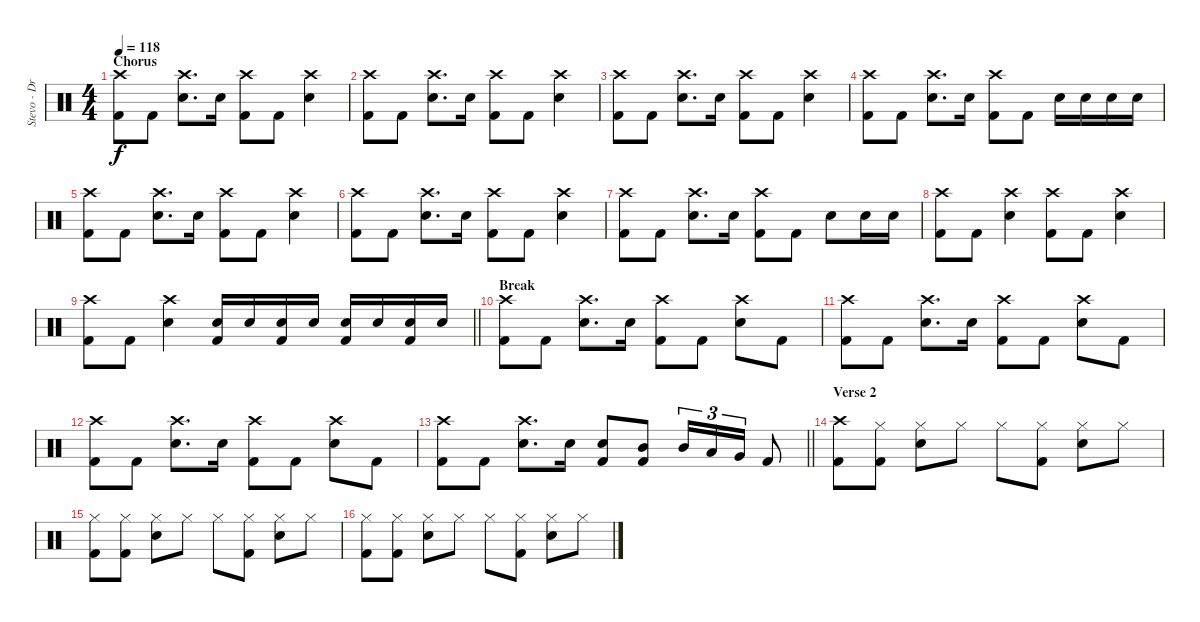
\track ("Stevo - Drums" "Stevo - Dr") {instrument percussion}
\staff {score}
\articulation defaults
\ts (4 4)
\section ("" "Chorus")
\tempo 118
\clef neutral
\ks c
("Crash high (hit)" "Kick (hit) 2").8{dy f} "Kick (hit) 2".8 ("Crash high (hit)" "Snare (hit) 2").8{d} "Snare (hit) 2".16 ("Crash high (hit)" "Kick (hit) 2").8 "Kick (hit) 2".8 ("Crash high (hit)" "Snare (hit) 2").4 |
("Crash high (hit)" "Kick (hit) 2").8 "Kick (hit) 2".8 ("Crash high (hit)" "Snare (hit) 2").8{d} "Snare (hit) 2".16 ("Crash high (hit)" "Kick (hit) 2").8 "Kick (hit) 2".8 ("Crash high (hit)" "Snare (hit) 2").4 |
("Crash high (hit)" "Kick (hit) 2").8 "Kick (hit) 2".8 ("Crash high (hit)" "Snare (hit) 2").8{d} "Snare (hit) 2".16 ("Crash high (hit)" "Kick (hit) 2").8 "Kick (hit) 2".8 ("Crash high (hit)" "Snare (hit) 2").4 |
("Crash high (hit)" "Kick (hit) 2").8 "Kick (hit) 2".8 ("Crash high (hit)" "Snare (hit) 2").8{d} "Snare (hit) 2".16 ("Crash high (hit)" "Kick (hit) 2").8 "Kick (hit) 2".8 "Snare (hit) 2".16 "Snare (hit) 2".16 "Snare (hit) 2".16 "Snare (hit) 2".16 |
("Crash high (hit)" "Kick (hit) 2").8 "Kick (hit) 2".8 ("Crash high (hit)" "Snare (hit) 2").8{d} "Snare (hit) 2".16 ("Crash high (hit)" "Kick (hit) 2").8 "Kick (hit) 2".8 ("Crash high (hit)" "Snare (hit) 2").4 |
("Crash high (hit)" "Kick (hit) 2").8 "Kick (hit) 2".8 ("Crash high (hit)" "Snare (hit) 2").8{d} "Snare (hit) 2".16 ("Crash high (hit)" "Kick (hit) 2").8 "Kick (hit) 2".8 ("Crash high (hit)" "Snare (hit) 2").4 |
("Crash high (hit)" "Kick (hit) 2").8 "Kick (hit) 2".8 ("Crash high (hit)" "Snare (hit) 2").8{d} "Snare (hit) 2".16 ("Crash high (hit)" "Kick (hit) 2").8 "Kick (hit) 2".8 "Snare (hit) 2".8 "Snare (hit) 2".16 "Snare (hit) 2".16 |
("Crash high (hit)" "Kick (hit) 2").8 "Kick (hit) 2".8 ("Crash high (hit)" "Snare (hit) 2").4 ("Crash high (hit)" "Kick (hit) 2").8 "Kick (hit) 2".8 ("Crash high (hit)" "Snare (hit) 2").4 |
\barLineRight lightlight
("Crash high (hit)" "Kick (hit) 2").8 "Kick (hit) 2".8 ("Crash high (hit)" "Snare (hit) 2").4 ("Snare (hit) 2" "Kick (hit) 2").16 "Snare (hit) 2".16 ("Snare (hit) 2" "Kick (hit) 2").16 "Snare (hit) 2".16 ("Snare (hit) 2" "Kick (hit) 2").16 "Snare (hit) 2".16 ("Snare (hit) 2" "Kick (hit) 2").16 "Snare (hit) 2".16 |
\section ("" "Break")
("Crash high (hit)" "Kick (hit) 2").8 "Kick (hit) 2".8 ("Crash high (hit)" "Snare (hit) 2").8{d} "Snare (hit) 2".16 ("Crash high (hit)" "Kick (hit) 2").8 "Kick (hit) 2".8 ("Crash high (hit)" "Snare (hit) 2").8 "Kick (hit) 2".8 |
("Crash high (hit)" "Kick (hit) 2").8 "Kick (hit) 2".8 ("Crash high (hit)" "Snare (hit) 2").8{d} "Snare (hit) 2".16 ("Crash high (hit)" "Kick (hit) 2").8 "Kick (hit) 2".8 ("Crash high (hit)" "Snare (hit) 2").8 "Kick (hit) 2".8 |
("Crash high (hit)" "Kick (hit) 2").8 "Kick (hit) 2".8 ("Crash high (hit)" "Snare (hit) 2").8{d} "Snare (hit) 2".16 ("Crash high (hit)" "Kick (hit) 2").8 "Kick (hit) 2".8 ("Crash high (hit)" "Snare (hit) 2").8 "Kick (hit) 2".8 |
\barLineRight lightlight
("Crash high (hit)" "Kick (hit) 2").8 "Kick (hit) 2".8 ("Crash high (hit)" "Snare (hit) 2").8{d} "Snare (hit) 2".16 ("Snare (hit) 2" "Kick (hit) 2").8 ("Mid Tom (hit)" "Kick (hit) 2").8 "Mid Tom (hit)".16{tu (3 2)} "Low Tom (hit)".16{tu (3 2)} "Very Low Tom (hit)".16{tu (3 2)} "Kick (hit) 2".8 |
\section ("" "Verse 2")
("Crash high (hit)" "Kick (hit) 2").8 ("Hi-Hat (closed)" "Kick (hit) 2").8 ("Hi-Hat (closed)" "Snare (hit) 2").8 "Hi-Hat (closed)".8 "Hi-Hat (closed)".8 ("Hi-Hat (closed)" "Kick (hit) 2").8 ("Hi-Hat (closed)" "Snare (hit) 2").8 "Hi-Hat (closed)".8 |
("Hi-Hat (closed)" "Kick (hit) 2").8 ("Hi-Hat (closed)" "Kick (hit) 2").8 ("Hi-Hat (closed)" "Snare (hit) 2").8 "Hi-Hat (closed)".8 "Hi-Hat (closed)".8 ("Hi-Hat (closed)" "Kick (hit) 2").8 ("Hi-Hat (closed)" "Snare (hit) 2").8 "Hi-Hat (closed)".8 |
("Hi-Hat (closed)" "Kick (hit) 2").8 ("Hi-Hat (closed)" "Kick (hit) 2").8 ("Hi-Hat (closed)" "Snare (hit) 2").8 "Hi-Hat (closed)".8 "Hi-Hat (closed)".8 ("Hi-Hat (closed)" "Kick (hit) 2").8 ("Hi-Hat (closed)" "Snare (hit) 2").8 "Hi-Hat (closed)".8
